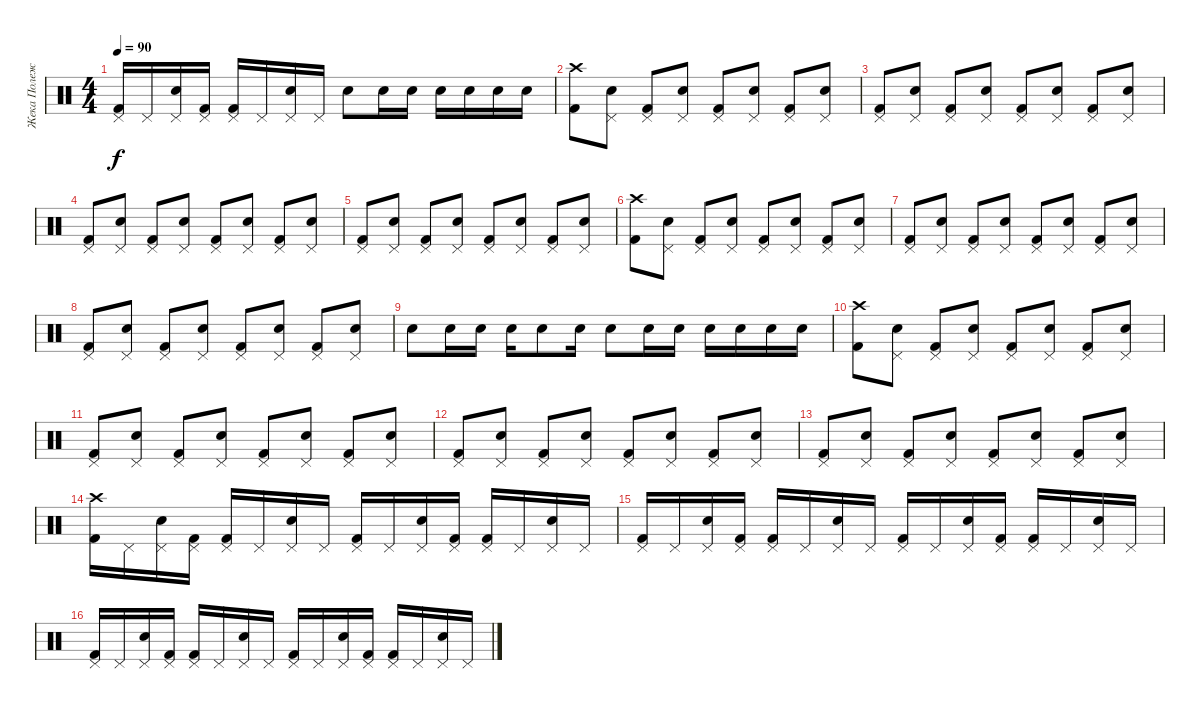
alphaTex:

\track ("Жека Полежаев" "Жека Полеж") {instrument percussion}
\staff {score}
\articulation defaults
\ts (4 4)
\tempo 90
\clef neutral
\ks c
("Pedal Hi-Hat (hit)" "Kick (hit) 2").16{dy f} "Pedal Hi-Hat (hit)".16 ("Pedal Hi-Hat (hit)" "Snare (hit) 2").16 ("Pedal Hi-Hat (hit)" "Kick (hit) 2").16 ("Pedal Hi-Hat (hit)" "Kick (hit) 2").16 "Pedal Hi-Hat (hit)".16 ("Pedal Hi-Hat (hit)" "Snare (hit) 2").16 "Pedal Hi-Hat (hit)".16 "Snare (hit) 2".8 "Snare (hit) 2".16 "Snare (hit) 2".16 "Snare (hit) 2".16 "Snare (hit) 2".16 "Snare (hit) 2".16 "Snare (hit) 2".16 |
("Crash high (hit)" "Kick (hit) 2").8 ("Pedal Hi-Hat (hit)" "Snare (hit) 2").8 ("Pedal Hi-Hat (hit)" "Kick (hit) 2").8 ("Pedal Hi-Hat (hit)" "Snare (hit) 2").8 ("Pedal Hi-Hat (hit)" "Kick (hit) 2").8 ("Pedal Hi-Hat (hit)" "Snare (hit) 2").8 ("Pedal Hi-Hat (hit)" "Kick (hit) 2").8 ("Pedal Hi-Hat (hit)" "Snare (hit) 2").8 |
("Pedal Hi-Hat (hit)" "Kick (hit) 2").8 ("Pedal Hi-Hat (hit)" "Snare (hit) 2").8 ("Pedal Hi-Hat (hit)" "Kick (hit) 2").8 ("Pedal Hi-Hat (hit)" "Snare (hit) 2").8 ("Pedal Hi-Hat (hit)" "Kick (hit) 2").8 ("Pedal Hi-Hat (hit)" "Snare (hit) 2").8 ("Pedal Hi-Hat (hit)" "Kick (hit) 2").8 ("Pedal Hi-Hat (hit)" "Snare (hit) 2").8 |
("Pedal Hi-Hat (hit)" "Kick (hit) 2").8 ("Pedal Hi-Hat (hit)" "Snare (hit) 2").8 ("Pedal Hi-Hat (hit)" "Kick (hit) 2").8 ("Pedal Hi-Hat (hit)" "Snare (hit) 2").8 ("Pedal Hi-Hat (hit)" "Kick (hit) 2").8 ("Pedal Hi-Hat (hit)" "Snare (hit) 2").8 ("Pedal Hi-Hat (hit)" "Kick (hit) 2").8 ("Pedal Hi-Hat (hit)" "Snare (hit) 2").8 |
("Pedal Hi-Hat (hit)" "Kick (hit) 2").8 ("Pedal Hi-Hat (hit)" "Snare (hit) 2").8 ("Pedal Hi-Hat (hit)" "Kick (hit) 2").8 ("Pedal Hi-Hat (hit)" "Snare (hit) 2").8 ("Pedal Hi-Hat (hit)" "Kick (hit) 2").8 ("Pedal Hi-Hat (hit)" "Snare (hit) 2").8 ("Pedal Hi-Hat (hit)" "Kick (hit) 2").8 ("Pedal Hi-Hat (hit)" "Snare (hit) 2").8 |
("Crash high (hit)" "Kick (hit) 2").8 ("Pedal Hi-Hat (hit)" "Snare (hit) 2").8 ("Pedal Hi-Hat (hit)" "Kick (hit) 2").8 ("Pedal Hi-Hat (hit)" "Snare (hit) 2").8 ("Pedal Hi-Hat (hit)" "Kick (hit) 2").8 ("Pedal Hi-Hat (hit)" "Snare (hit) 2").8 ("Pedal Hi-Hat (hit)" "Kick (hit) 2").8 ("Pedal Hi-Hat (hit)" "Snare (hit) 2").8 |
("Pedal Hi-Hat (hit)" "Kick (hit) 2").8 ("Pedal Hi-Hat (hit)" "Snare (hit) 2").8 ("Pedal Hi-Hat (hit)" "Kick (hit) 2").8 ("Pedal Hi-Hat (hit)" "Snare (hit) 2").8 ("Pedal Hi-Hat (hit)" "Kick (hit) 2").8 ("Pedal Hi-Hat (hit)" "Snare (hit) 2").8 ("Pedal Hi-Hat (hit)" "Kick (hit) 2").8 ("Pedal Hi-Hat (hit)" "Snare (hit) 2").8 |
("Pedal Hi-Hat (hit)" "Kick (hit) 2").8 ("Pedal Hi-Hat (hit)" "Snare (hit) 2").8 ("Pedal Hi-Hat (hit)" "Kick (hit) 2").8 ("Pedal Hi-Hat (hit)" "Snare (hit) 2").8 ("Pedal Hi-Hat (hit)" "Kick (hit) 2").8 ("Pedal Hi-Hat (hit)" "Snare (hit) 2").8 ("Pedal Hi-Hat (hit)" "Kick (hit) 2").8 ("Pedal Hi-Hat (hit)" "Snare (hit) 2").8 |
"Snare (hit) 2".8 "Snare (hit) 2".16 "Snare (hit) 2".16 "Snare (hit) 2".16 "Snare (hit) 2".8 "Snare (hit) 2".16 "Snare (hit) 2".8 "Snare (hit) 2".16 "Snare (hit) 2".16 "Snare (hit) 2".16 "Snare (hit) 2".16 "Snare (hit) 2".16 "Snare (hit) 2".16 |
("Crash high (hit)" "Kick (hit) 2").8 ("Pedal Hi-Hat (hit)" "Snare (hit) 2").8 ("Pedal Hi-Hat (hit)" "Kick (hit) 2").8 ("Pedal Hi-Hat (hit)" "Snare (hit) 2").8 ("Pedal Hi-Hat (hit)" "Kick (hit) 2").8 ("Pedal Hi-Hat (hit)" "Snare (hit) 2").8 ("Pedal Hi-Hat (hit)" "Kick (hit) 2").8 ("Pedal Hi-Hat (hit)" "Snare (hit) 2").8 |
("Pedal Hi-Hat (hit)" "Kick (hit) 2").8 ("Pedal Hi-Hat (hit)" "Snare (hit) 2").8 ("Pedal Hi-Hat (hit)" "Kick (hit) 2").8 ("Pedal Hi-Hat (hit)" "Snare (hit) 2").8 ("Pedal Hi-Hat (hit)" "Kick (hit) 2").8 ("Pedal Hi-Hat (hit)" "Snare (hit) 2").8 ("Pedal Hi-Hat (hit)" "Kick (hit) 2").8 ("Pedal Hi-Hat (hit)" "Snare (hit) 2").8 |
("Pedal Hi-Hat (hit)" "Kick (hit) 2").8 ("Pedal Hi-Hat (hit)" "Snare (hit) 2").8 ("Pedal Hi-Hat (hit)" "Kick (hit) 2").8 ("Pedal Hi-Hat (hit)" "Snare (hit) 2").8 ("Pedal Hi-Hat (hit)" "Kick (hit) 2").8 ("Pedal Hi-Hat (hit)" "Snare (hit) 2").8 ("Pedal Hi-Hat (hit)" "Kick (hit) 2").8 ("Pedal Hi-Hat (hit)" "Snare (hit) 2").8 |
("Pedal Hi-Hat (hit)" "Kick (hit) 2").8 ("Pedal Hi-Hat (hit)" "Snare (hit) 2").8 ("Pedal Hi-Hat (hit)" "Kick (hit) 2").8 ("Pedal Hi-Hat (hit)" "Snare (hit) 2").8 ("Pedal Hi-Hat (hit)" "Kick (hit) 2").8 ("Pedal Hi-Hat (hit)" "Snare (hit) 2").8 ("Pedal Hi-Hat (hit)" "Kick (hit) 2").8 ("Pedal Hi-Hat (hit)" "Snare (hit) 2").8 |
("Crash high (hit)" "Kick (hit) 2").16 "Pedal Hi-Hat (hit)".16 ("Pedal Hi-Hat (hit)" "Snare (hit) 2").16 ("Pedal Hi-Hat (hit)" "Kick (hit) 2").16 ("Pedal Hi-Hat (hit)" "Kick (hit) 2").16 "Pedal Hi-Hat (hit)".16 ("Pedal Hi-Hat (hit)" "Snare (hit) 2").16 "Pedal Hi-Hat (hit)".16 ("Pedal Hi-Hat (hit)" "Kick (hit) 2").16 "Pedal Hi-Hat (hit)".16 ("Pedal Hi-Hat (hit)" "Snare (hit) 2").16 ("Pedal Hi-Hat (hit)" "Kick (hit) 2").16 ("Pedal Hi-Hat (hit)" "Kick (hit) 2").16 "Pedal Hi-Hat (hit)".16 ("Pedal Hi-Hat (hit)" "Snare (hit) 2").16 "Pedal Hi-Hat (hit)".16 |
("Pedal Hi-Hat (hit)" "Kick (hit) 2").16 "Pedal Hi-Hat (hit)".16 ("Pedal Hi-Hat (hit)" "Snare (hit) 2").16 ("Pedal Hi-Hat (hit)" "Kick (hit) 2").16 ("Pedal Hi-Hat (hit)" "Kick (hit) 2").16 "Pedal Hi-Hat (hit)".16 ("Pedal Hi-Hat (hit)" "Snare (hit) 2").16 "Pedal Hi-Hat (hit)".16 ("Pedal Hi-Hat (hit)" "Kick (hit) 2").16 "Pedal Hi-Hat (hit)".16 ("Pedal Hi-Hat (hit)" "Snare (hit) 2").16 ("Pedal Hi-Hat (hit)" "Kick (hit) 2").16 ("Pedal Hi-Hat (hit)" "Kick (hit) 2").16 "Pedal Hi-Hat (hit)".16 ("Pedal Hi-Hat (hit)" "Snare (hit) 2").16 "Pedal Hi-Hat (hit)".16 |
("Pedal Hi-Hat (hit)" "Kick (hit) 2").16 "Pedal Hi-Hat (hit)".16 ("Pedal Hi-Hat (hit)" "Snare (hit) 2").16 ("Pedal Hi-Hat (hit)" "Kick (hit) 2").16 ("Pedal Hi-Hat (hit)" "Kick (hit) 2").16 "Pedal Hi-Hat (hit)".16 ("Pedal Hi-Hat (hit)" "Snare (hit) 2").16 "Pedal Hi-Hat (hit)".16 ("Pedal Hi-Hat (hit)" "Kick (hit) 2").16 "Pedal Hi-Hat (hit)".16 ("Pedal Hi-Hat (hit)" "Snare (hit) 2").16 ("Pedal Hi-Hat (hit)" "Kick (hit) 2").16 ("Pedal Hi-Hat (hit)" "Kick (hit) 2").16 "Pedal Hi-Hat (hit)".16 ("Pedal Hi-Hat (hit)" "Snare (hit) 2").16 "Pedal Hi-Hat (hit)".16
